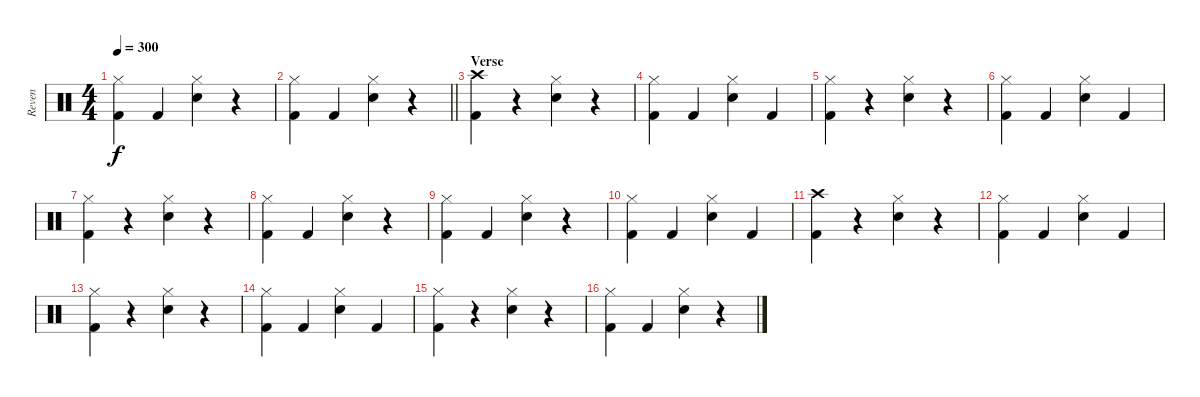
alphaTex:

\track ("Reven" "Reven") {instrument percussion}
\staff {score}
\articulation defaults
\ts (4 4)
\tempo 300
\clef neutral
\ks c
("Hi-Hat (closed)" "Kick (hit) 2").4{dy f} "Kick (hit) 2".4 ("Hi-Hat (closed)" "Electric Snare (hit)").4 r.4 |
\barLineRight lightlight
("Hi-Hat (closed)" "Kick (hit) 2").4 "Kick (hit) 2".4 ("Hi-Hat (closed)" "Electric Snare (hit)").4 r.4 |
\section ("" "Verse")
("Crash high (hit)" "Kick (hit) 2").4 r.4 ("Hi-Hat (closed)" "Electric Snare (hit)").4 r.4 |
("Hi-Hat (closed)" "Kick (hit) 2").4 "Kick (hit) 2".4 ("Hi-Hat (closed)" "Electric Snare (hit)").4 "Kick (hit) 2".4 |
("Hi-Hat (closed)" "Kick (hit) 2").4 r.4 ("Hi-Hat (closed)" "Electric Snare (hit)").4 r.4 |
("Hi-Hat (closed)" "Kick (hit) 2").4 "Kick (hit) 2".4 ("Hi-Hat (closed)" "Electric Snare (hit)").4 "Kick (hit) 2".4 |
("Hi-Hat (closed)" "Kick (hit) 2").4 r.4 ("Hi-Hat (closed)" "Electric Snare (hit)").4 r.4 |
("Hi-Hat (closed)" "Kick (hit) 2").4 "Kick (hit) 2".4 ("Hi-Hat (closed)" "Electric Snare (hit)").4 r.4 |
("Hi-Hat (closed)" "Kick (hit) 2").4 "Kick (hit) 2".4 ("Hi-Hat (closed)" "Electric Snare (hit)").4 r.4 |
("Hi-Hat (closed)" "Kick (hit) 2").4 "Kick (hit) 2".4 ("Hi-Hat (closed)" "Electric Snare (hit)").4 "Kick (hit) 2".4 |
("Crash high (hit)" "Kick (hit) 2").4 r.4 ("Hi-Hat (closed)" "Electric Snare (hit)").4 r.4 |
("Hi-Hat (closed)" "Kick (hit) 2").4 "Kick (hit) 2".4 ("Hi-Hat (closed)" "Electric Snare (hit)").4 "Kick (hit) 2".4 |
("Hi-Hat (closed)" "Kick (hit) 2").4 r.4 ("Hi-Hat (closed)" "Electric Snare (hit)").4 r.4 |
("Hi-Hat (closed)" "Kick (hit) 2").4 "Kick (hit) 2".4 ("Hi-Hat (closed)" "Electric Snare (hit)").4 "Kick (hit) 2".4 |
("Hi-Hat (closed)" "Kick (hit) 2").4 r.4 ("Hi-Hat (closed)" "Electric Snare (hit)").4 r.4 |
("Hi-Hat (closed)" "Kick (hit) 2").4 "Kick (hit) 2".4 ("Hi-Hat (closed)" "Electric Snare (hit)").4 r.4
